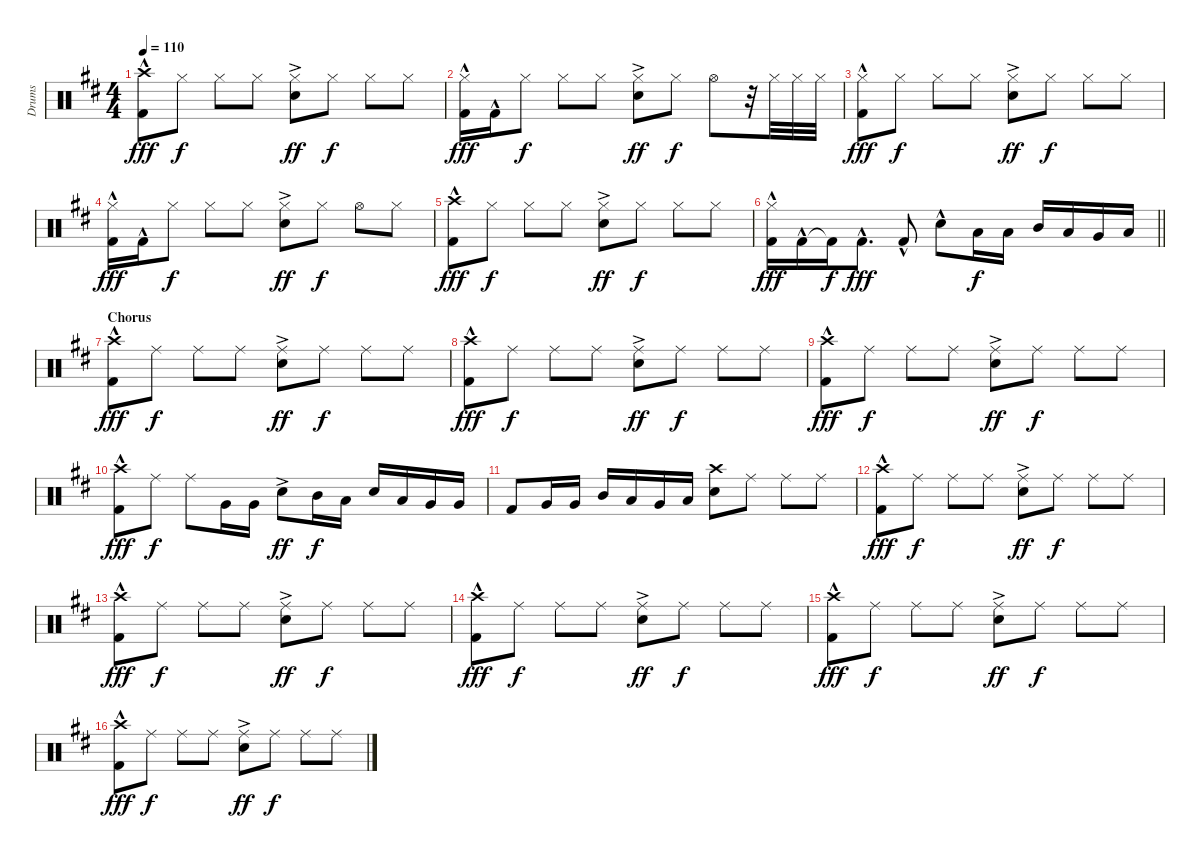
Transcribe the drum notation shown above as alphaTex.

\track ("Drums" "Drums") {instrument percussion}
\staff {score}
\articulation defaults
\ts (4 4)
\tempo 110
\clef neutral
\ks d
("Crash high (hit)" "Kick (hit) 2"{hac}).8{dy fff} "Hi-Hat (closed)".8{dy f} "Hi-Hat (closed)".8 "Hi-Hat (closed)".8 ("Snare (hit) 2"{ac} "Hi-Hat (closed)").8{dy ff} "Hi-Hat (closed)".8{dy f} "Hi-Hat (closed)".8 "Hi-Hat (closed)".8 |
("Hi-Hat (closed)" "Kick (hit) 2"{hac}).16{dy fff} "Kick (hit) 2"{hac}.16 "Hi-Hat (closed)".8{dy f} "Hi-Hat (closed)".8 "Hi-Hat (closed)".8 ("Snare (hit) 2"{ac} "Hi-Hat (closed)").8{dy ff} "Hi-Hat (closed)".8{dy f} "Hi-Hat (open)".8 r.32 "Hi-Hat (closed)".32 "Hi-Hat (closed)".32 "Hi-Hat (closed)".32 |
("Hi-Hat (closed)" "Kick (hit) 2"{hac}).8{dy fff} "Hi-Hat (closed)".8{dy f} "Hi-Hat (closed)".8 "Hi-Hat (closed)".8 ("Snare (hit) 2"{ac} "Hi-Hat (closed)").8{dy ff} "Hi-Hat (closed)".8{dy f} "Hi-Hat (closed)".8 "Hi-Hat (closed)".8 |
("Hi-Hat (closed)" "Kick (hit) 2"{hac}).16{dy fff} "Kick (hit) 2"{hac}.16 "Hi-Hat (closed)".8{dy f} "Hi-Hat (closed)".8 "Hi-Hat (closed)".8 ("Snare (hit) 2"{ac} "Hi-Hat (closed)").8{dy ff} "Hi-Hat (closed)".8{dy f} "Hi-Hat (open)".8 "Hi-Hat (closed)".8 |
("Crash high (hit)" "Kick (hit) 2"{hac}).8{dy fff} "Hi-Hat (closed)".8{dy f} "Hi-Hat (closed)".8 "Hi-Hat (closed)".8 ("Snare (hit) 2"{ac} "Hi-Hat (closed)").8{dy ff} "Hi-Hat (closed)".8{dy f} "Hi-Hat (closed)".8 "Hi-Hat (closed)".8 |
\barLineRight lightlight
("Hi-Hat (closed)" "Kick (hit) 2"{hac}).16{dy fff} "Kick (hit) 2"{hac}.16 "Kick (hit) 2"{t}.16{dy f} "Kick (hit) 2"{hac}.8{d dy fff} "Kick (hit) 2"{hac}.8 "Snare (hit) 2"{hac}.8 "Low Tom (hit)".16{dy f} "Low Tom (hit)".16 "Mid Tom (hit)".16 "Low Tom (hit)".16 "Very Low Tom (hit)".16 "Low Floor Tom (hit)".16 |
\section ("" "Chorus")
("Crash high (hit)" "Kick (hit) 2"{hac}).8{dy fff} "Ride (middle)".8{dy f} "Ride (middle)".8 "Ride (middle)".8 ("Snare (hit) 2"{ac} "Ride (middle)").8{dy ff} "Ride (middle)".8{dy f} "Ride (middle)".8 "Ride (middle)".8 |
("Crash high (hit)" "Kick (hit) 2"{hac}).8{dy fff} "Ride (middle)".8{dy f} "Ride (middle)".8 "Ride (middle)".8 ("Snare (hit) 2"{ac} "Ride (middle)").8{dy ff} "Ride (middle)".8{dy f} "Ride (middle)".8 "Ride (middle)".8 |
("Crash high (hit)" "Kick (hit) 2"{hac}).8{dy fff} "Ride (middle)".8{dy f} "Ride (middle)".8 "Ride (middle)".8 ("Snare (hit) 2"{ac} "Ride (middle)").8{dy ff} "Ride (middle)".8{dy f} "Ride (middle)".8 "Ride (middle)".8 |
("Crash high (hit)" "Kick (hit) 2"{hac}).8{dy fff} "Ride (middle)".8{dy f} "Ride (middle)".8 "Very Low Tom (hit)".16 "Very Low Tom (hit)".16 "Snare (hit) 2"{ac}.8{dy ff} "Mid Tom (hit)".16{dy f} "Low Tom (hit)".16 "Snare (hit) 2".16 "Low Tom (hit)".16 "Very Low Tom (hit)".16 "Very Low Tom (hit)".16 |
"Kick (hit) 2".8 "Very Low Tom (hit)".16 "Very Low Tom (hit)".16 "Mid Tom (hit)".16 "Low Tom (hit)".16 "Very Low Tom (hit)".16 "Low Floor Tom (hit)".16 ("Snare (hit) 2" "Crash high (hit)").8 "Ride (middle)".8 "Ride (middle)".8 "Ride (middle)".8 |
("Crash high (hit)" "Kick (hit) 2"{hac}).8{dy fff} "Ride (middle)".8{dy f} "Ride (middle)".8 "Ride (middle)".8 ("Snare (hit) 2"{ac} "Ride (middle)").8{dy ff} "Ride (middle)".8{dy f} "Ride (middle)".8 "Ride (middle)".8 |
("Crash high (hit)" "Kick (hit) 2"{hac}).8{dy fff} "Ride (middle)".8{dy f} "Ride (middle)".8 "Ride (middle)".8 ("Snare (hit) 2"{ac} "Ride (middle)").8{dy ff} "Ride (middle)".8{dy f} "Ride (middle)".8 "Ride (middle)".8 |
("Crash high (hit)" "Kick (hit) 2"{hac}).8{dy fff} "Ride (middle)".8{dy f} "Ride (middle)".8 "Ride (middle)".8 ("Snare (hit) 2"{ac} "Ride (middle)").8{dy ff} "Ride (middle)".8{dy f} "Ride (middle)".8 "Ride (middle)".8 |
("Crash high (hit)" "Kick (hit) 2"{hac}).8{dy fff} "Ride (middle)".8{dy f} "Ride (middle)".8 "Ride (middle)".8 ("Snare (hit) 2"{ac} "Ride (middle)").8{dy ff} "Ride (middle)".8{dy f} "Ride (middle)".8 "Ride (middle)".8 |
("Crash high (hit)" "Kick (hit) 2"{hac}).8{dy fff} "Ride (middle)".8{dy f} "Ride (middle)".8 "Ride (middle)".8 ("Snare (hit) 2"{ac} "Ride (middle)").8{dy ff} "Ride (middle)".8{dy f} "Ride (middle)".8 "Ride (middle)".8
